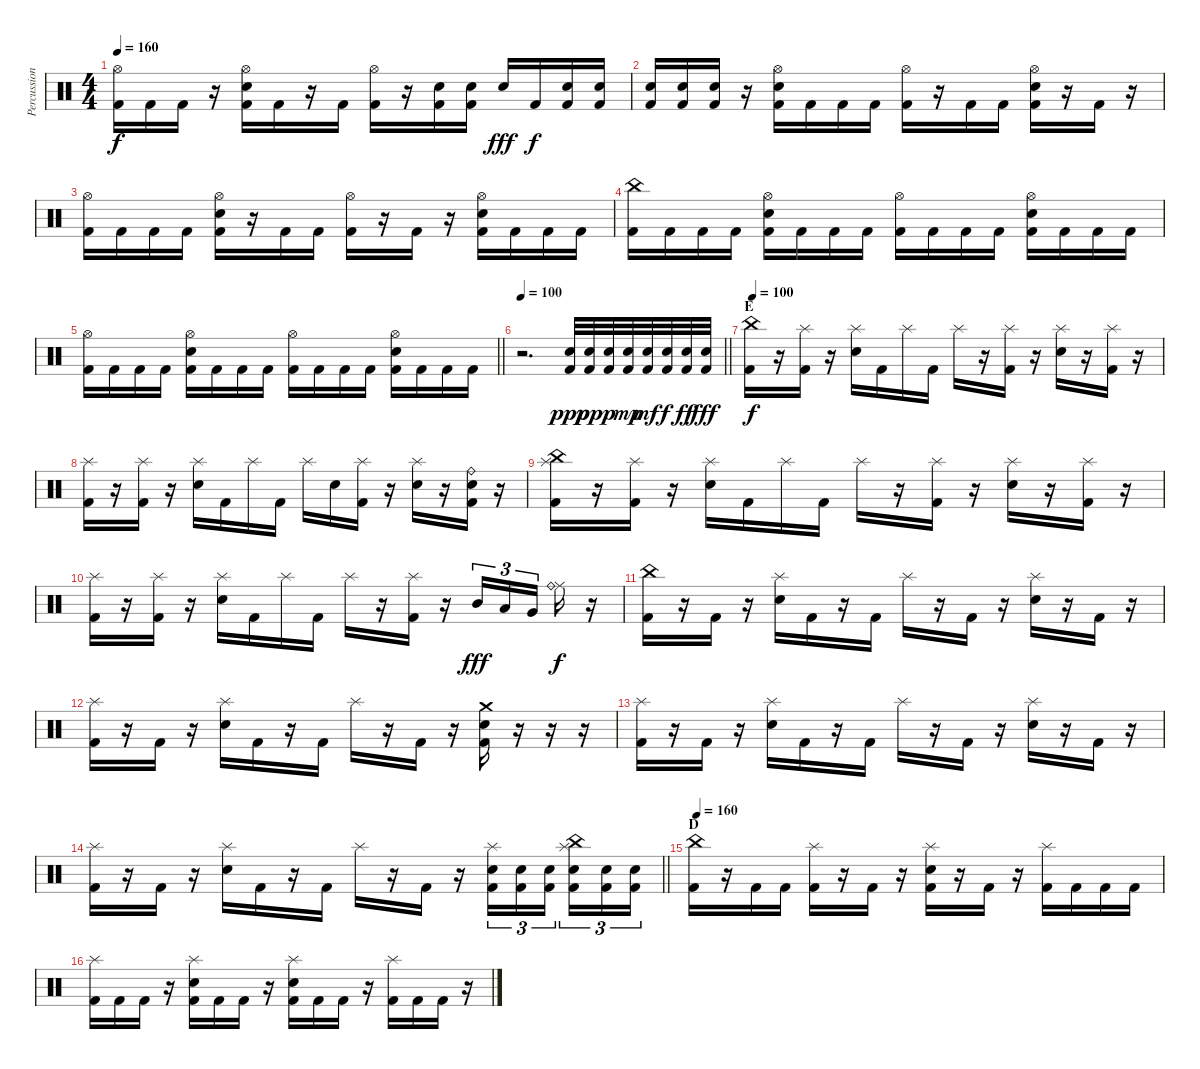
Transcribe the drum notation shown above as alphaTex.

\track ("Percussion" "Percussion") {instrument percussion}
\staff {score}
\articulation defaults
\ts (4 4)
\tempo 160
\clef neutral
\ks c
("Hi-Hat (open)" "Kick (hit) 2").16{dy f} "Kick (hit) 2".16 "Kick (hit) 2".16 r.16 ("Hi-Hat (open)" "Electric Snare (hit)" "Kick (hit) 2").16 "Kick (hit) 2".16 r.16 "Kick (hit) 2".16 ("Hi-Hat (open)" "Kick (hit) 2").16 r.16 ("Electric Snare (hit)" "Kick (hit) 2").16 ("Electric Snare (hit)" "Kick (hit) 2").16 "Electric Snare (hit)".16{dy fff} "Kick (hit) 2".16{dy f} ("Electric Snare (hit)" "Kick (hit) 2").16 ("Electric Snare (hit)" "Kick (hit) 2").16 |
("Electric Snare (hit)" "Kick (hit) 2").16 ("Electric Snare (hit)" "Kick (hit) 2").16 ("Electric Snare (hit)" "Kick (hit) 2").16 r.16 ("Hi-Hat (open)" "Electric Snare (hit)" "Kick (hit) 2").16 "Kick (hit) 2".16 "Kick (hit) 2".16 "Kick (hit) 2".16 ("Hi-Hat (open)" "Kick (hit) 2").16 r.16 "Kick (hit) 2".16 "Kick (hit) 2".16 ("Hi-Hat (open)" "Electric Snare (hit)" "Kick (hit) 2").16 r.16 "Kick (hit) 2".16 r.16 |
("Hi-Hat (open)" "Kick (hit) 2").16 "Kick (hit) 2".16 "Kick (hit) 2".16 "Kick (hit) 2".16 ("Hi-Hat (open)" "Electric Snare (hit)" "Kick (hit) 2").16 r.16 "Kick (hit) 2".16 "Kick (hit) 2".16 ("Hi-Hat (open)" "Kick (hit) 2").16 r.16 "Kick (hit) 2".16 r.16 ("Hi-Hat (open)" "Electric Snare (hit)" "Kick (hit) 2").16 "Kick (hit) 2".16 "Kick (hit) 2".16 "Kick (hit) 2".16 |
("China (hit)" "Kick (hit) 2").16 "Kick (hit) 2".16 "Kick (hit) 2".16 "Kick (hit) 2".16 ("Hi-Hat (open)" "Electric Snare (hit)" "Kick (hit) 2").16 "Kick (hit) 2".16 "Kick (hit) 2".16 "Kick (hit) 2".16 ("Hi-Hat (open)" "Kick (hit) 2").16 "Kick (hit) 2".16 "Kick (hit) 2".16 "Kick (hit) 2".16 ("Hi-Hat (open)" "Electric Snare (hit)" "Kick (hit) 2").16 "Kick (hit) 2".16 "Kick (hit) 2".16 "Kick (hit) 2".16 |
\barLineRight lightlight
("Hi-Hat (open)" "Kick (hit) 2").16 "Kick (hit) 2".16 "Kick (hit) 2".16 "Kick (hit) 2".16 ("Hi-Hat (open)" "Electric Snare (hit)" "Kick (hit) 2").16 "Kick (hit) 2".16 "Kick (hit) 2".16 "Kick (hit) 2".16 ("Hi-Hat (open)" "Kick (hit) 2").16 "Kick (hit) 2".16 "Kick (hit) 2".16 "Kick (hit) 2".16 ("Hi-Hat (open)" "Electric Snare (hit)" "Kick (hit) 2").16 "Kick (hit) 2".16 "Kick (hit) 2".16 "Kick (hit) 2".16 |
\tempo 100
\barLineRight lightlight
r.2{d} ("Electric Snare (hit)" "Kick (hit) 2").32{dy ppp} ("Electric Snare (hit)" "Kick (hit) 2").32{dy pp} ("Electric Snare (hit)" "Kick (hit) 2").32{dy p} ("Electric Snare (hit)" "Kick (hit) 2").32{dy mp} ("Electric Snare (hit)" "Kick (hit) 2").32{dy mf} ("Electric Snare (hit)" "Kick (hit) 2").32{dy f} ("Electric Snare (hit)" "Kick (hit) 2").32{dy ff} ("Electric Snare (hit)" "Kick (hit) 2").32{dy fff} |
\section ("" "E")
\tempo 100
("China (hit)" "Kick (hit) 2").16{dy f} r.16 ("Splash (hit)" "Kick (hit) 2").16 r.16 ("Splash (hit)" "Electric Snare (hit)").16 "Kick (hit) 2".16 "Splash (hit)".16 "Kick (hit) 2".16 "Splash (hit)".16 r.16 ("Splash (hit)" "Kick (hit) 2").16 r.16 ("Splash (hit)" "Electric Snare (hit)").16 r.16 ("Splash (hit)" "Kick (hit) 2").16 r.16 |
("Splash (hit)" "Kick (hit) 2").16 r.16 ("Splash (hit)" "Kick (hit) 2").16 r.16 ("Splash (hit)" "Electric Snare (hit)").16 "Kick (hit) 2".16 "Splash (hit)".16 "Kick (hit) 2".16 "Splash (hit)".16 "Electric Snare (hit)".16 ("Splash (hit)" "Kick (hit) 2").16 r.16 ("Splash (hit)" "Electric Snare (hit)").16 r.16 ("Ride (bell)" "Electric Snare (hit)" "Kick (hit) 2").16 r.16 |
("China (hit)" "Splash (hit)" "Kick (hit) 2").16 r.16 ("Splash (hit)" "Kick (hit) 2").16 r.16 ("Splash (hit)" "Electric Snare (hit)").16 "Kick (hit) 2".16 "Splash (hit)".16 "Kick (hit) 2".16 "Splash (hit)".16 r.16 ("Splash (hit)" "Kick (hit) 2").16 r.16 ("Splash (hit)" "Electric Snare (hit)").16 r.16 ("Splash (hit)" "Kick (hit) 2").16 r.16 |
("Splash (hit)" "Kick (hit) 2").16 r.16 ("Splash (hit)" "Kick (hit) 2").16 r.16 ("Splash (hit)" "Electric Snare (hit)").16 "Kick (hit) 2".16 "Splash (hit)".16 "Kick (hit) 2".16 "Splash (hit)".16 r.16 ("Splash (hit)" "Kick (hit) 2").16 r.16 "Mid Tom (hit)".16{tu (3 2) dy fff} "Low Tom (hit)".16{tu (3 2)} "Very Low Tom (hit)".16{tu (3 2)} ("Ride (middle)" "Ride (bell)").16{dy f} r.16 |
("China (hit)" "Kick (hit) 2").16 r.16 "Kick (hit) 2".16 r.16 ("Splash (hit)" "Electric Snare (hit)").16 "Kick (hit) 2".16 r.16 "Kick (hit) 2".16 "Splash (hit)".16 r.16 "Kick (hit) 2".16 r.16 ("Splash (hit)" "Electric Snare (hit)").16 r.16 "Kick (hit) 2".16 r.16 |
("Splash (hit)" "Kick (hit) 2").16 r.16 "Kick (hit) 2".16 r.16 ("Splash (hit)" "Electric Snare (hit)").16 "Kick (hit) 2".16 r.16 "Kick (hit) 2".16 "Splash (hit)".16 r.16 "Kick (hit) 2".16 r.16 ("Crash medium (hit)" "Electric Snare (hit)" "Kick (hit) 2").16 r.16 r.16 r.16 |
("Splash (hit)" "Kick (hit) 2").16 r.16 "Kick (hit) 2".16 r.16 ("Splash (hit)" "Electric Snare (hit)").16 "Kick (hit) 2".16 r.16 "Kick (hit) 2".16 "Splash (hit)".16 r.16 "Kick (hit) 2".16 r.16 ("Splash (hit)" "Electric Snare (hit)").16 r.16 "Kick (hit) 2".16 r.16 |
\barLineRight lightlight
("Splash (hit)" "Kick (hit) 2").16 r.16 "Kick (hit) 2".16 r.16 ("Splash (hit)" "Electric Snare (hit)").16 "Kick (hit) 2".16 r.16 "Kick (hit) 2".16 "Splash (hit)".16 r.16 "Kick (hit) 2".16 r.16 ("Splash (hit)" "Electric Snare (hit)" "Kick (hit) 2").16{tu (3 2)} ("Electric Snare (hit)" "Kick (hit) 2").16{tu (3 2)} ("Electric Snare (hit)" "Kick (hit) 2").16{tu (3 2)} ("China (hit)" "Splash (hit)" "Electric Snare (hit)" "Kick (hit) 2").16{tu (3 2)} ("Electric Snare (hit)" "Kick (hit) 2").16{tu (3 2)} ("Electric Snare (hit)" "Kick (hit) 2").16{tu (3 2)} |
\section ("" "D")
\tempo 160
("China (hit)" "Kick (hit) 2").16 r.16 "Kick (hit) 2".16 "Kick (hit) 2".16 ("Splash (hit)" "Kick (hit) 2").16 r.16 "Kick (hit) 2".16 r.16 ("Splash (hit)" "Electric Snare (hit)" "Kick (hit) 2").16 r.16 "Kick (hit) 2".16 r.16 ("Splash (hit)" "Kick (hit) 2").16 "Kick (hit) 2".16 "Kick (hit) 2".16 "Kick (hit) 2".16 |
("Splash (hit)" "Kick (hit) 2").16 "Kick (hit) 2".16 "Kick (hit) 2".16 r.16 ("Splash (hit)" "Electric Snare (hit)" "Kick (hit) 2").16 "Kick (hit) 2".16 "Kick (hit) 2".16 r.16 ("Splash (hit)" "Electric Snare (hit)" "Kick (hit) 2").16 "Kick (hit) 2".16 "Kick (hit) 2".16 r.16 ("Splash (hit)" "Kick (hit) 2").16 "Kick (hit) 2".16 "Kick (hit) 2".16 r.16
